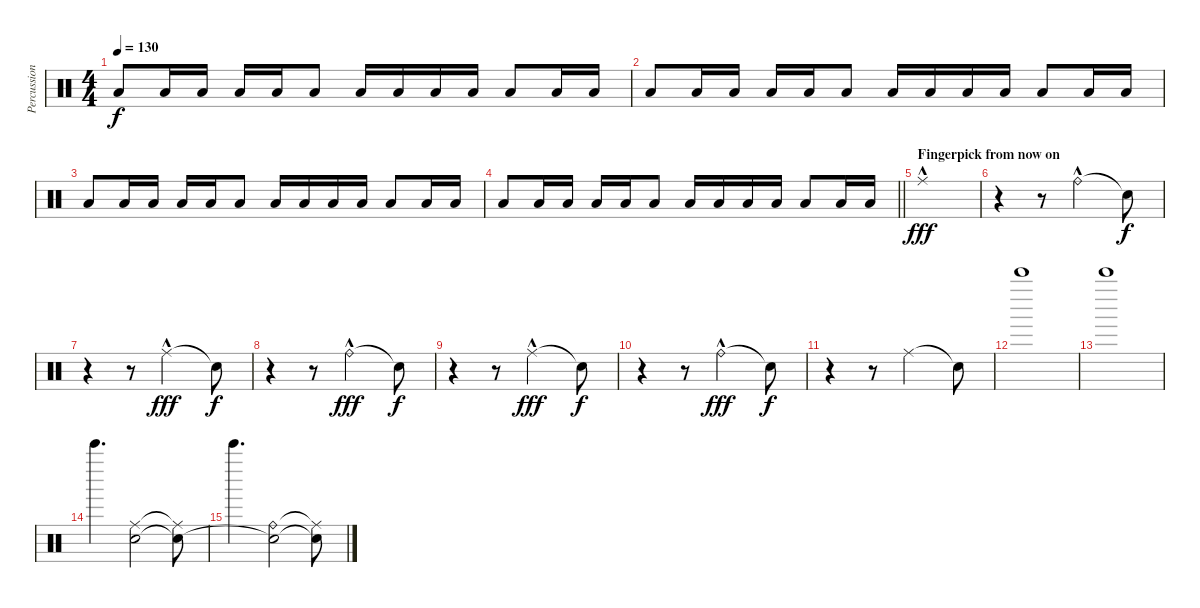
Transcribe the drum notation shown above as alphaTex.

\track ("Percussion" "Percussion") {instrument percussion}
\staff {score}
\articulation defaults
\ts (4 4)
\tempo 130
\clef neutral
\ks c "Low Floor Tom (hit)".8{dy f} "Low Floor Tom (hit)".16 "Low Floor Tom (hit)".16 "Low Floor Tom (hit)".16 "Low Floor Tom (hit)".16 "Low Floor Tom (hit)".8 "Low Floor Tom (hit)".16 "Low Floor Tom (hit)".16 "Low Floor Tom (hit)".16 "Low Floor Tom (hit)".16 "Low Floor Tom (hit)".8 "Low Floor Tom (hit)".16 "Low Floor Tom (hit)".16
|
"Low Floor Tom (hit)".8 "Low Floor Tom (hit)".16 "Low Floor Tom (hit)".16 "Low Floor Tom (hit)".16 "Low Floor Tom (hit)".16 "Low Floor Tom (hit)".8 "Low Floor Tom (hit)".16 "Low Floor Tom (hit)".16 "Low Floor Tom (hit)".16 "Low Floor Tom (hit)".16 "Low Floor Tom (hit)".8 "Low Floor Tom (hit)".16 "Low Floor Tom (hit)".16 |
"Low Floor Tom (hit)".8 "Low Floor Tom (hit)".16 "Low Floor Tom (hit)".16 "Low Floor Tom (hit)".16 "Low Floor Tom (hit)".16 "Low Floor Tom (hit)".8 "Low Floor Tom (hit)".16 "Low Floor Tom (hit)".16 "Low Floor Tom (hit)".16 "Low Floor Tom (hit)".16 "Low Floor Tom (hit)".8 "Low Floor Tom (hit)".16 "Low Floor Tom (hit)".16 |
\barLineRight lightlight "Low Floor Tom (hit)".8 "Low Floor Tom (hit)".16 "Low Floor Tom (hit)".16 "Low Floor Tom (hit)".16 "Low Floor Tom (hit)".16 "Low Floor Tom (hit)".8 "Low Floor Tom (hit)".16 "Low Floor Tom (hit)".16 "Low Floor Tom (hit)".16 "Low Floor Tom (hit)".16 "Low Floor Tom (hit)".8 "Low Floor Tom (hit)".16 "Low Floor Tom (hit)".16
|
\section ("" "Fingerpick from now on")
"Ride (middle)"{hac}.1{dy fff volume 8} |
r.4 r.8 "Ride (bell)"{hac}.2 "Snare (hit)"{t}.8{dy f} |
r.4 r.8 "Ride (middle)"{hac}.2{dy fff} "Snare (hit)"{t}.8{dy f} |
r.4 r.8 "Ride (bell)"{hac}.2{dy fff} "Snare (hit)"{t}.8{dy f} |
r.4 r.8 "Ride (middle)"{hac}.2{dy fff} "Snare (hit)"{t}.8{dy f} |
r.4 r.8 "Ride (bell)"{hac}.2{dy fff} "Snare (hit)"{t}.8{dy f} |
r.4 r.8 "Ride (middle)".2 "Snare (hit)"{t}.8 |
"Bell Tree (hit)".1 |
"Bell Tree (hit)".1 |
"Bell Tree (hit)".4{d} ("Ride (middle)" "Snare (hit)").2 ("Ride (middle)"{t} "Snare (hit)"{t}).8 |
"Bell Tree (hit)".4{d} ("Ride (bell)" "Snare (hit)"{t}).2 ("Ride (middle)"{t} "Snare (hit)"{t}).8
